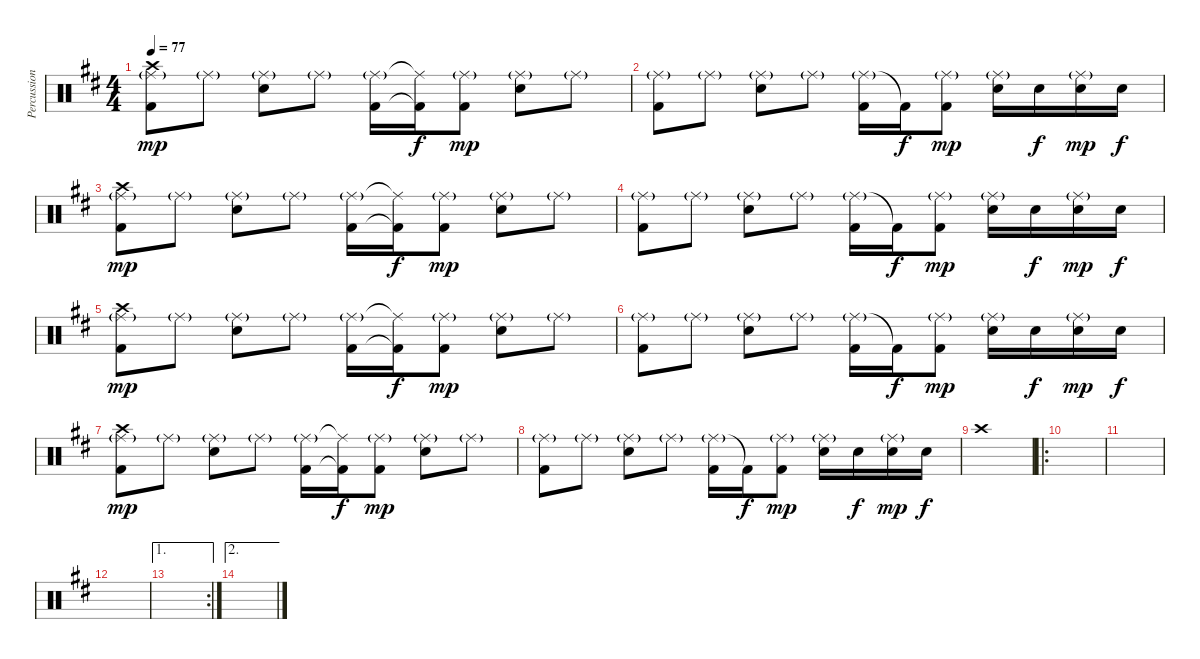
\track ("Percussion" "Percussion") {instrument percussion}
\staff {score}
\articulation defaults
\ts (4 4)
\tempo 77
\clef neutral
\ks d
("Ride (middle)"{g} "Kick (hit) 2" "Crash high (hit)").8{dy mp} "Ride (middle)"{g}.8 ("Ride (middle)"{g} "Snare (hit) 2").8 "Ride (middle)"{g}.8 ("Ride (middle)"{g} "Kick (hit) 2").16 ("Ride (middle)"{t} "Kick (hit) 2"{t}).16{dy f} ("Ride (middle)"{g} "Kick (hit) 2").8{dy mp} ("Ride (middle)"{g} "Snare (hit) 2").8 "Ride (middle)"{g}.8 |
("Ride (middle)"{g} "Kick (hit) 2").8 "Ride (middle)"{g}.8 ("Ride (middle)"{g} "Snare (hit) 2").8 "Ride (middle)"{g}.8 ("Ride (middle)"{g} "Kick (hit) 2").16 "Kick (hit) 2"{t}.16{dy f} ("Ride (middle)"{g} "Kick (hit) 2").8{dy mp} ("Ride (middle)"{g} "Snare (hit) 2").16 "Snare (hit) 2".16{dy f} ("Ride (middle)"{g} "Snare (hit) 2").16{dy mp} "Snare (hit) 2".16{dy f} |
("Ride (middle)"{g} "Kick (hit) 2" "Crash high (hit)").8{dy mp} "Ride (middle)"{g}.8 ("Ride (middle)"{g} "Snare (hit) 2").8 "Ride (middle)"{g}.8 ("Ride (middle)"{g} "Kick (hit) 2").16 ("Ride (middle)"{t} "Kick (hit) 2"{t}).16{dy f} ("Ride (middle)"{g} "Kick (hit) 2").8{dy mp} ("Ride (middle)"{g} "Snare (hit) 2").8 "Ride (middle)"{g}.8 |
("Ride (middle)"{g} "Kick (hit) 2").8 "Ride (middle)"{g}.8 ("Ride (middle)"{g} "Snare (hit) 2").8 "Ride (middle)"{g}.8 ("Ride (middle)"{g} "Kick (hit) 2").16 "Kick (hit) 2"{t}.16{dy f} ("Ride (middle)"{g} "Kick (hit) 2").8{dy mp} ("Ride (middle)"{g} "Snare (hit) 2").16 "Snare (hit) 2".16{dy f} ("Ride (middle)"{g} "Snare (hit) 2").16{dy mp} "Snare (hit) 2".16{dy f} |
("Ride (middle)"{g} "Kick (hit) 2" "Crash high (hit)").8{dy mp} "Ride (middle)"{g}.8 ("Ride (middle)"{g} "Snare (hit) 2").8 "Ride (middle)"{g}.8 ("Ride (middle)"{g} "Kick (hit) 2").16 ("Ride (middle)"{t} "Kick (hit) 2"{t}).16{dy f} ("Ride (middle)"{g} "Kick (hit) 2").8{dy mp} ("Ride (middle)"{g} "Snare (hit) 2").8 "Ride (middle)"{g}.8 |
("Ride (middle)"{g} "Kick (hit) 2").8 "Ride (middle)"{g}.8 ("Ride (middle)"{g} "Snare (hit) 2").8 "Ride (middle)"{g}.8 ("Ride (middle)"{g} "Kick (hit) 2").16 "Kick (hit) 2"{t}.16{dy f} ("Ride (middle)"{g} "Kick (hit) 2").8{dy mp} ("Ride (middle)"{g} "Snare (hit) 2").16 "Snare (hit) 2".16{dy f} ("Ride (middle)"{g} "Snare (hit) 2").16{dy mp} "Snare (hit) 2".16{dy f} |
("Ride (middle)"{g} "Kick (hit) 2" "Crash high (hit)").8{dy mp} "Ride (middle)"{g}.8 ("Ride (middle)"{g} "Snare (hit) 2").8 "Ride (middle)"{g}.8 ("Ride (middle)"{g} "Kick (hit) 2").16 ("Ride (middle)"{t} "Kick (hit) 2"{t}).16{dy f} ("Ride (middle)"{g} "Kick (hit) 2").8{dy mp} ("Ride (middle)"{g} "Snare (hit) 2").8 "Ride (middle)"{g}.8 |
("Ride (middle)"{g} "Kick (hit) 2").8 "Ride (middle)"{g}.8 ("Ride (middle)"{g} "Snare (hit) 2").8 "Ride (middle)"{g}.8 ("Ride (middle)"{g} "Kick (hit) 2").16 "Kick (hit) 2"{t}.16{dy f} ("Ride (middle)"{g} "Kick (hit) 2").8{dy mp} ("Ride (middle)"{g} "Snare (hit) 2").16 "Snare (hit) 2".16{dy f} ("Ride (middle)"{g} "Snare (hit) 2").16{dy mp} "Snare (hit) 2".16{dy f} |
"Crash high (hit)".1 |
\ro
|
|
|
\ae 1
\rc 2
|
\ae 2
